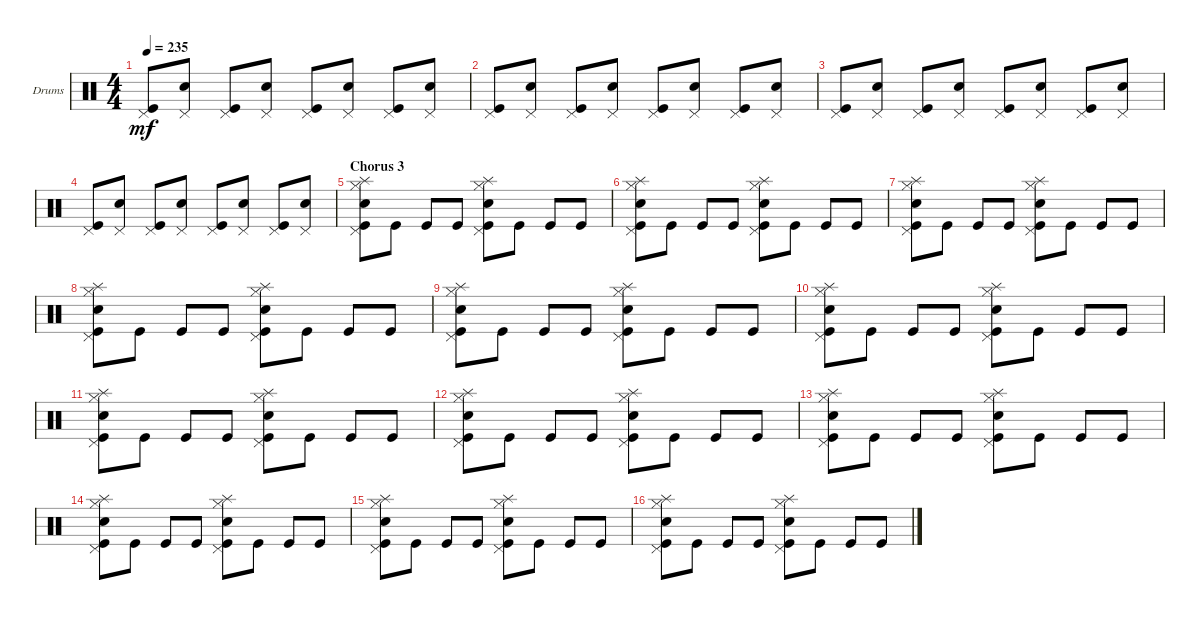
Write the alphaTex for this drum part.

\defaultSystemsLayout 4
\bracketExtendMode groupsimilarinstruments
\firstSystemTrackNameOrientation horizontal
\otherSystemsTrackNameOrientation horizontal
\track ("Drumkit" "Drums") {instrument percussion}
\staff {score}
\articulation defaults
\ts (4 4)
\tempo 235
\clef neutral
\scale
0.333333
\ks c
("Kick (hit)" "Pedal Hi-Hat (hit)").8{dy mf} ("Snare (hit) 2" "Pedal Hi-Hat (hit)").8 ("Kick (hit)" "Pedal Hi-Hat (hit)").8 ("Snare (hit) 2" "Pedal Hi-Hat (hit)").8 ("Kick (hit)" "Pedal Hi-Hat (hit)").8 ("Snare (hit) 2" "Pedal Hi-Hat (hit)").8 ("Kick (hit)" "Pedal Hi-Hat (hit)").8 ("Snare (hit) 2" "Pedal Hi-Hat (hit)").8 |
\scale
0.333333 ("Kick (hit)" "Pedal Hi-Hat (hit)").8 ("Snare (hit) 2" "Pedal Hi-Hat (hit)").8 ("Kick (hit)" "Pedal Hi-Hat (hit)").8 ("Snare (hit) 2" "Pedal Hi-Hat (hit)").8 ("Kick (hit)" "Pedal Hi-Hat (hit)").8 ("Snare (hit) 2" "Pedal Hi-Hat (hit)").8 ("Kick (hit)" "Pedal Hi-Hat (hit)").8 ("Snare (hit) 2" "Pedal Hi-Hat (hit)").8 |
\scale
0.333333 ("Kick (hit)" "Pedal Hi-Hat (hit)").8 ("Snare (hit) 2" "Pedal Hi-Hat (hit)").8 ("Kick (hit)" "Pedal Hi-Hat (hit)").8 ("Snare (hit) 2" "Pedal Hi-Hat (hit)").8 ("Kick (hit)" "Pedal Hi-Hat (hit)").8 ("Snare (hit) 2" "Pedal Hi-Hat (hit)").8 ("Kick (hit)" "Pedal Hi-Hat (hit)").8 ("Snare (hit) 2" "Pedal Hi-Hat (hit)").8 |
\scale
0.333333 ("Kick (hit)" "Pedal Hi-Hat (hit)").8 ("Snare (hit) 2" "Pedal Hi-Hat (hit)").8 ("Kick (hit)" "Pedal Hi-Hat (hit)").8 ("Snare (hit) 2" "Pedal Hi-Hat (hit)").8 ("Kick (hit)" "Pedal Hi-Hat (hit)").8 ("Snare (hit) 2" "Pedal Hi-Hat (hit)").8 ("Kick (hit)" "Pedal Hi-Hat (hit)").8 ("Snare (hit) 2" "Pedal Hi-Hat (hit)").8 |
\section ("" "Chorus 3")
\scale
0.333333 ("Kick (hit)" "Snare (hit) 2" "Pedal Hi-Hat (hit)" "Hi-Hat (closed)" "Splash (hit)").8 "Kick (hit)".8 "Kick (hit)".8 "Kick (hit)".8 ("Kick (hit)" "Pedal Hi-Hat (hit)" "Snare (hit) 2" "Hi-Hat (closed)" "Splash (hit)").8 "Kick (hit)".8 "Kick (hit)".8 "Kick (hit)".8 |
\scale
0.333333 ("Kick (hit)" "Snare (hit) 2" "Pedal Hi-Hat (hit)" "Hi-Hat (closed)" "Splash (hit)").8 "Kick (hit)".8 "Kick (hit)".8 "Kick (hit)".8 ("Kick (hit)" "Pedal Hi-Hat (hit)" "Snare (hit) 2" "Hi-Hat (closed)" "Splash (hit)").8 "Kick (hit)".8 "Kick (hit)".8 "Kick (hit)".8 |
\scale
0.333333 ("Kick (hit)" "Snare (hit) 2" "Pedal Hi-Hat (hit)" "Hi-Hat (closed)" "Splash (hit)").8 "Kick (hit)".8 "Kick (hit)".8 "Kick (hit)".8 ("Kick (hit)" "Pedal Hi-Hat (hit)" "Snare (hit) 2" "Hi-Hat (closed)" "Splash (hit)").8 "Kick (hit)".8 "Kick (hit)".8 "Kick (hit)".8 |
\scale
0.333333 ("Kick (hit)" "Snare (hit) 2" "Pedal Hi-Hat (hit)" "Hi-Hat (closed)" "Splash (hit)").8 "Kick (hit)".8 "Kick (hit)".8 "Kick (hit)".8 ("Kick (hit)" "Pedal Hi-Hat (hit)" "Snare (hit) 2" "Hi-Hat (closed)" "Splash (hit)").8 "Kick (hit)".8 "Kick (hit)".8 "Kick (hit)".8 |
\scale
0.333333 ("Kick (hit)" "Snare (hit) 2" "Pedal Hi-Hat (hit)" "Hi-Hat (closed)" "Splash (hit)").8 "Kick (hit)".8 "Kick (hit)".8 "Kick (hit)".8 ("Kick (hit)" "Pedal Hi-Hat (hit)" "Snare (hit) 2" "Hi-Hat (closed)" "Splash (hit)").8 "Kick (hit)".8 "Kick (hit)".8 "Kick (hit)".8 |
\scale
0.333333 ("Kick (hit)" "Snare (hit) 2" "Pedal Hi-Hat (hit)" "Hi-Hat (closed)" "Splash (hit)").8 "Kick (hit)".8 "Kick (hit)".8 "Kick (hit)".8 ("Kick (hit)" "Pedal Hi-Hat (hit)" "Snare (hit) 2" "Hi-Hat (closed)" "Splash (hit)").8 "Kick (hit)".8 "Kick (hit)".8 "Kick (hit)".8 |
\scale
0.333333 ("Kick (hit)" "Snare (hit) 2" "Pedal Hi-Hat (hit)" "Hi-Hat (closed)" "Splash (hit)").8 "Kick (hit)".8 "Kick (hit)".8 "Kick (hit)".8 ("Kick (hit)" "Pedal Hi-Hat (hit)" "Snare (hit) 2" "Hi-Hat (closed)" "Splash (hit)").8 "Kick (hit)".8 "Kick (hit)".8 "Kick (hit)".8 |
\scale
0.333333 ("Kick (hit)" "Snare (hit) 2" "Pedal Hi-Hat (hit)" "Hi-Hat (closed)" "Splash (hit)").8 "Kick (hit)".8 "Kick (hit)".8 "Kick (hit)".8 ("Kick (hit)" "Pedal Hi-Hat (hit)" "Snare (hit) 2" "Hi-Hat (closed)" "Splash (hit)").8 "Kick (hit)".8 "Kick (hit)".8 "Kick (hit)".8 |
\scale
0.333333 ("Kick (hit)" "Snare (hit) 2" "Pedal Hi-Hat (hit)" "Hi-Hat (closed)" "Splash (hit)").8 "Kick (hit)".8 "Kick (hit)".8 "Kick (hit)".8 ("Kick (hit)" "Pedal Hi-Hat (hit)" "Snare (hit) 2" "Hi-Hat (closed)" "Splash (hit)").8 "Kick (hit)".8 "Kick (hit)".8 "Kick (hit)".8 |
\scale
0.333333 ("Kick (hit)" "Snare (hit) 2" "Pedal Hi-Hat (hit)" "Hi-Hat (closed)" "Splash (hit)").8 "Kick (hit)".8 "Kick (hit)".8 "Kick (hit)".8 ("Kick (hit)" "Pedal Hi-Hat (hit)" "Snare (hit) 2" "Hi-Hat (closed)" "Splash (hit)").8 "Kick (hit)".8 "Kick (hit)".8 "Kick (hit)".8 |
\scale
0.333333 ("Kick (hit)" "Snare (hit) 2" "Pedal Hi-Hat (hit)" "Hi-Hat (closed)" "Splash (hit)").8 "Kick (hit)".8 "Kick (hit)".8 "Kick (hit)".8 ("Kick (hit)" "Pedal Hi-Hat (hit)" "Snare (hit) 2" "Hi-Hat (closed)" "Splash (hit)").8 "Kick (hit)".8 "Kick (hit)".8 "Kick (hit)".8 |
\scale
0.333333 ("Kick (hit)" "Snare (hit) 2" "Pedal Hi-Hat (hit)" "Hi-Hat (closed)" "Splash (hit)").8 "Kick (hit)".8 "Kick (hit)".8 "Kick (hit)".8 ("Kick (hit)" "Pedal Hi-Hat (hit)" "Snare (hit) 2" "Hi-Hat (closed)" "Splash (hit)").8 "Kick (hit)".8 "Kick (hit)".8 "Kick (hit)".8
